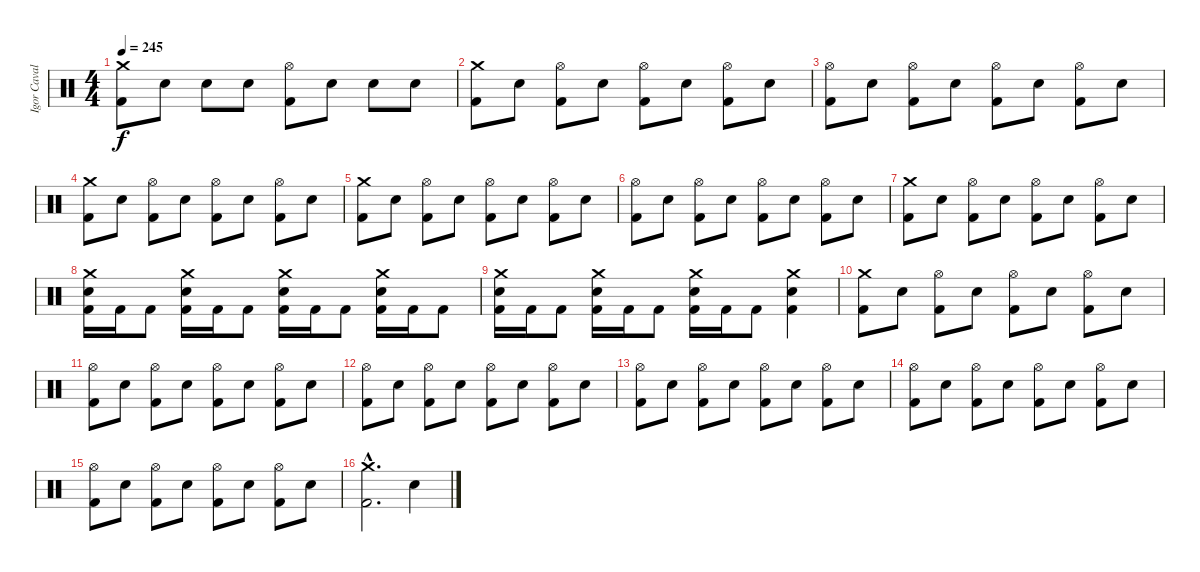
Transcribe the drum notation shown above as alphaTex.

\track ("Igor Cavalera" "Igor Caval") {instrument percussion}
\staff {score}
\articulation defaults
\ts (4 4)
\tempo 245
\clef neutral
\ks c
("Crash medium (hit)" "Kick (hit) 2").8{dy f} "Electric Snare (hit)".8 "Electric Snare (hit)".8 "Electric Snare (hit)".8 ("Hi-Hat (open)" "Kick (hit) 2").8 "Electric Snare (hit)".8 "Electric Snare (hit)".8 "Electric Snare (hit)".8 |
("Crash medium (hit)" "Kick (hit) 2").8 "Electric Snare (hit)".8 ("Hi-Hat (open)" "Kick (hit) 2").8 "Electric Snare (hit)".8 ("Hi-Hat (open)" "Kick (hit) 2").8 "Electric Snare (hit)".8 ("Hi-Hat (open)" "Kick (hit) 2").8 "Electric Snare (hit)".8 |
("Hi-Hat (open)" "Kick (hit) 2").8 "Electric Snare (hit)".8 ("Hi-Hat (open)" "Kick (hit) 2").8 "Electric Snare (hit)".8 ("Hi-Hat (open)" "Kick (hit) 2").8 "Electric Snare (hit)".8 ("Hi-Hat (open)" "Kick (hit) 2").8 "Electric Snare (hit)".8 |
("Crash medium (hit)" "Kick (hit) 2").8 "Electric Snare (hit)".8 ("Hi-Hat (open)" "Kick (hit) 2").8 "Electric Snare (hit)".8 ("Hi-Hat (open)" "Kick (hit) 2").8 "Electric Snare (hit)".8 ("Hi-Hat (open)" "Kick (hit) 2").8 "Electric Snare (hit)".8 |
("Crash medium (hit)" "Kick (hit) 2").8 "Electric Snare (hit)".8 ("Hi-Hat (open)" "Kick (hit) 2").8 "Electric Snare (hit)".8 ("Hi-Hat (open)" "Kick (hit) 2").8 "Electric Snare (hit)".8 ("Hi-Hat (open)" "Kick (hit) 2").8 "Electric Snare (hit)".8 |
("Hi-Hat (open)" "Kick (hit) 2").8 "Electric Snare (hit)".8 ("Hi-Hat (open)" "Kick (hit) 2").8 "Electric Snare (hit)".8 ("Hi-Hat (open)" "Kick (hit) 2").8 "Electric Snare (hit)".8 ("Hi-Hat (open)" "Kick (hit) 2").8 "Electric Snare (hit)".8 |
("Crash medium (hit)" "Kick (hit) 2").8 "Electric Snare (hit)".8 ("Hi-Hat (open)" "Kick (hit) 2").8 "Electric Snare (hit)".8 ("Hi-Hat (open)" "Kick (hit) 2").8 "Electric Snare (hit)".8 ("Hi-Hat (open)" "Kick (hit) 2").8 "Electric Snare (hit)".8 |
("Crash medium (hit)" "Electric Snare (hit)" "Kick (hit) 2").16 "Kick (hit) 2".16 "Kick (hit) 2".8 ("Crash medium (hit)" "Electric Snare (hit)" "Kick (hit) 2").16 "Kick (hit) 2".16 "Kick (hit) 2".8 ("Crash medium (hit)" "Electric Snare (hit)" "Kick (hit) 2").16 "Kick (hit) 2".16 "Kick (hit) 2".8 ("Crash medium (hit)" "Electric Snare (hit)" "Kick (hit) 2").16 "Kick (hit) 2".16 "Kick (hit) 2".8 |
("Crash medium (hit)" "Electric Snare (hit)" "Kick (hit) 2").16 "Kick (hit) 2".16 "Kick (hit) 2".8 ("Crash medium (hit)" "Electric Snare (hit)" "Kick (hit) 2").16 "Kick (hit) 2".16 "Kick (hit) 2".8 ("Crash medium (hit)" "Electric Snare (hit)" "Kick (hit) 2").16 "Kick (hit) 2".16 "Kick (hit) 2".8 ("Crash medium (hit)" "Electric Snare (hit)" "Kick (hit) 2").4 |
("Crash medium (hit)" "Kick (hit) 2").8 "Electric Snare (hit)".8 ("Hi-Hat (open)" "Kick (hit) 2").8 "Electric Snare (hit)".8 ("Hi-Hat (open)" "Kick (hit) 2").8 "Electric Snare (hit)".8 ("Hi-Hat (open)" "Kick (hit) 2").8 "Electric Snare (hit)".8 |
("Hi-Hat (open)" "Kick (hit) 2").8 "Electric Snare (hit)".8 ("Hi-Hat (open)" "Kick (hit) 2").8 "Electric Snare (hit)".8 ("Hi-Hat (open)" "Kick (hit) 2").8 "Electric Snare (hit)".8 ("Hi-Hat (open)" "Kick (hit) 2").8 "Electric Snare (hit)".8 |
("Hi-Hat (open)" "Kick (hit) 2").8 "Electric Snare (hit)".8 ("Hi-Hat (open)" "Kick (hit) 2").8 "Electric Snare (hit)".8 ("Hi-Hat (open)" "Kick (hit) 2").8 "Electric Snare (hit)".8 ("Hi-Hat (open)" "Kick (hit) 2").8 "Electric Snare (hit)".8 |
("Hi-Hat (open)" "Kick (hit) 2").8 "Electric Snare (hit)".8 ("Hi-Hat (open)" "Kick (hit) 2").8 "Electric Snare (hit)".8 ("Hi-Hat (open)" "Kick (hit) 2").8 "Electric Snare (hit)".8 ("Hi-Hat (open)" "Kick (hit) 2").8 "Electric Snare (hit)".8 |
("Hi-Hat (open)" "Kick (hit) 2").8 "Electric Snare (hit)".8 ("Hi-Hat (open)" "Kick (hit) 2").8 "Electric Snare (hit)".8 ("Hi-Hat (open)" "Kick (hit) 2").8 "Electric Snare (hit)".8 ("Hi-Hat (open)" "Kick (hit) 2").8 "Electric Snare (hit)".8 |
("Hi-Hat (open)" "Kick (hit) 2").8 "Electric Snare (hit)".8 ("Hi-Hat (open)" "Kick (hit) 2").8 "Electric Snare (hit)".8 ("Hi-Hat (open)" "Kick (hit) 2").8 "Electric Snare (hit)".8 ("Hi-Hat (open)" "Kick (hit) 2").8 "Electric Snare (hit)".8 |
("Crash medium (hit)"{hac} "Kick (hit) 2"{hac}).2{d} "Electric Snare (hit)".4
